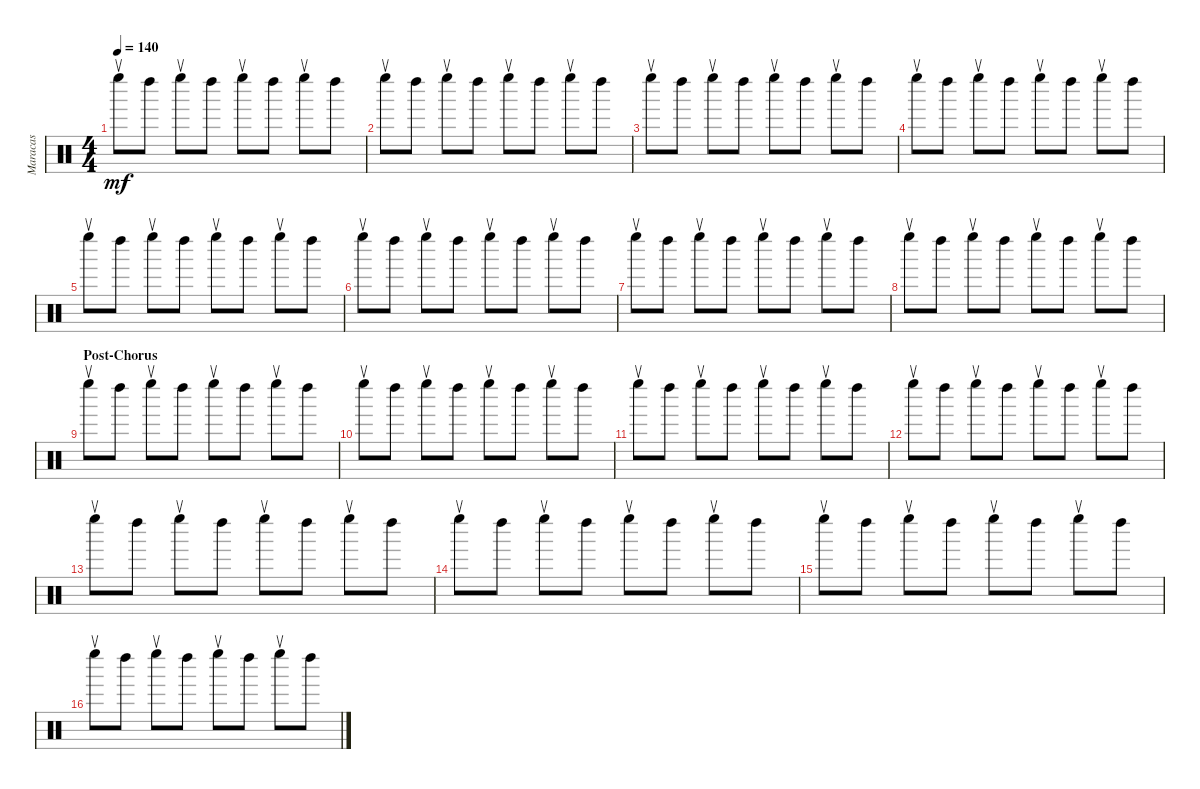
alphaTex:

\track ("Maracas" "Maracas") {instrument percussion}
\staff {score}
\articulation defaults
\ts (4 4)
\tempo 140
\clef neutral
\ks c "Left Maraca (return)".8{dy mf} "Left Maraca (hit)".8 "Left Maraca (return)".8 "Left Maraca (hit)".8 "Left Maraca (return)".8 "Left Maraca (hit)".8 "Left Maraca (return)".8 "Left Maraca (hit)".8
|
"Left Maraca (return)".8 "Left Maraca (hit)".8 "Left Maraca (return)".8 "Left Maraca (hit)".8 "Left Maraca (return)".8 "Left Maraca (hit)".8 "Left Maraca (return)".8 "Left Maraca (hit)".8 |
"Left Maraca (return)".8 "Left Maraca (hit)".8 "Left Maraca (return)".8 "Left Maraca (hit)".8 "Left Maraca (return)".8 "Left Maraca (hit)".8 "Left Maraca (return)".8 "Left Maraca (hit)".8 |
"Left Maraca (return)".8 "Left Maraca (hit)".8 "Left Maraca (return)".8 "Left Maraca (hit)".8 "Left Maraca (return)".8 "Left Maraca (hit)".8 "Left Maraca (return)".8 "Left Maraca (hit)".8 |
"Left Maraca (return)".8 "Left Maraca (hit)".8 "Left Maraca (return)".8 "Left Maraca (hit)".8 "Left Maraca (return)".8 "Left Maraca (hit)".8 "Left Maraca (return)".8 "Left Maraca (hit)".8 |
"Left Maraca (return)".8 "Left Maraca (hit)".8 "Left Maraca (return)".8 "Left Maraca (hit)".8 "Left Maraca (return)".8 "Left Maraca (hit)".8 "Left Maraca (return)".8 "Left Maraca (hit)".8 |
"Left Maraca (return)".8 "Left Maraca (hit)".8 "Left Maraca (return)".8 "Left Maraca (hit)".8 "Left Maraca (return)".8 "Left Maraca (hit)".8 "Left Maraca (return)".8 "Left Maraca (hit)".8 |
"Left Maraca (return)".8 "Left Maraca (hit)".8 "Left Maraca (return)".8 "Left Maraca (hit)".8 "Left Maraca (return)".8 "Left Maraca (hit)".8 "Left Maraca (return)".8 "Left Maraca (hit)".8 |
\section ("" "Post-Chorus")
"Left Maraca (return)".8 "Left Maraca (hit)".8 "Left Maraca (return)".8 "Left Maraca (hit)".8 "Left Maraca (return)".8 "Left Maraca (hit)".8 "Left Maraca (return)".8 "Left Maraca (hit)".8 |
"Left Maraca (return)".8 "Left Maraca (hit)".8 "Left Maraca (return)".8 "Left Maraca (hit)".8 "Left Maraca (return)".8 "Left Maraca (hit)".8 "Left Maraca (return)".8 "Left Maraca (hit)".8 |
"Left Maraca (return)".8 "Left Maraca (hit)".8 "Left Maraca (return)".8 "Left Maraca (hit)".8 "Left Maraca (return)".8 "Left Maraca (hit)".8 "Left Maraca (return)".8 "Left Maraca (hit)".8 |
"Left Maraca (return)".8 "Left Maraca (hit)".8 "Left Maraca (return)".8 "Left Maraca (hit)".8 "Left Maraca (return)".8 "Left Maraca (hit)".8 "Left Maraca (return)".8 "Left Maraca (hit)".8 |
"Left Maraca (return)".8 "Left Maraca (hit)".8 "Left Maraca (return)".8 "Left Maraca (hit)".8 "Left Maraca (return)".8 "Left Maraca (hit)".8 "Left Maraca (return)".8 "Left Maraca (hit)".8 |
"Left Maraca (return)".8 "Left Maraca (hit)".8 "Left Maraca (return)".8 "Left Maraca (hit)".8 "Left Maraca (return)".8 "Left Maraca (hit)".8 "Left Maraca (return)".8 "Left Maraca (hit)".8 |
"Left Maraca (return)".8 "Left Maraca (hit)".8 "Left Maraca (return)".8 "Left Maraca (hit)".8 "Left Maraca (return)".8 "Left Maraca (hit)".8 "Left Maraca (return)".8 "Left Maraca (hit)".8 |
"Left Maraca (return)".8 "Left Maraca (hit)".8 "Left Maraca (return)".8 "Left Maraca (hit)".8 "Left Maraca (return)".8 "Left Maraca (hit)".8 "Left Maraca (return)".8 "Left Maraca (hit)".8
